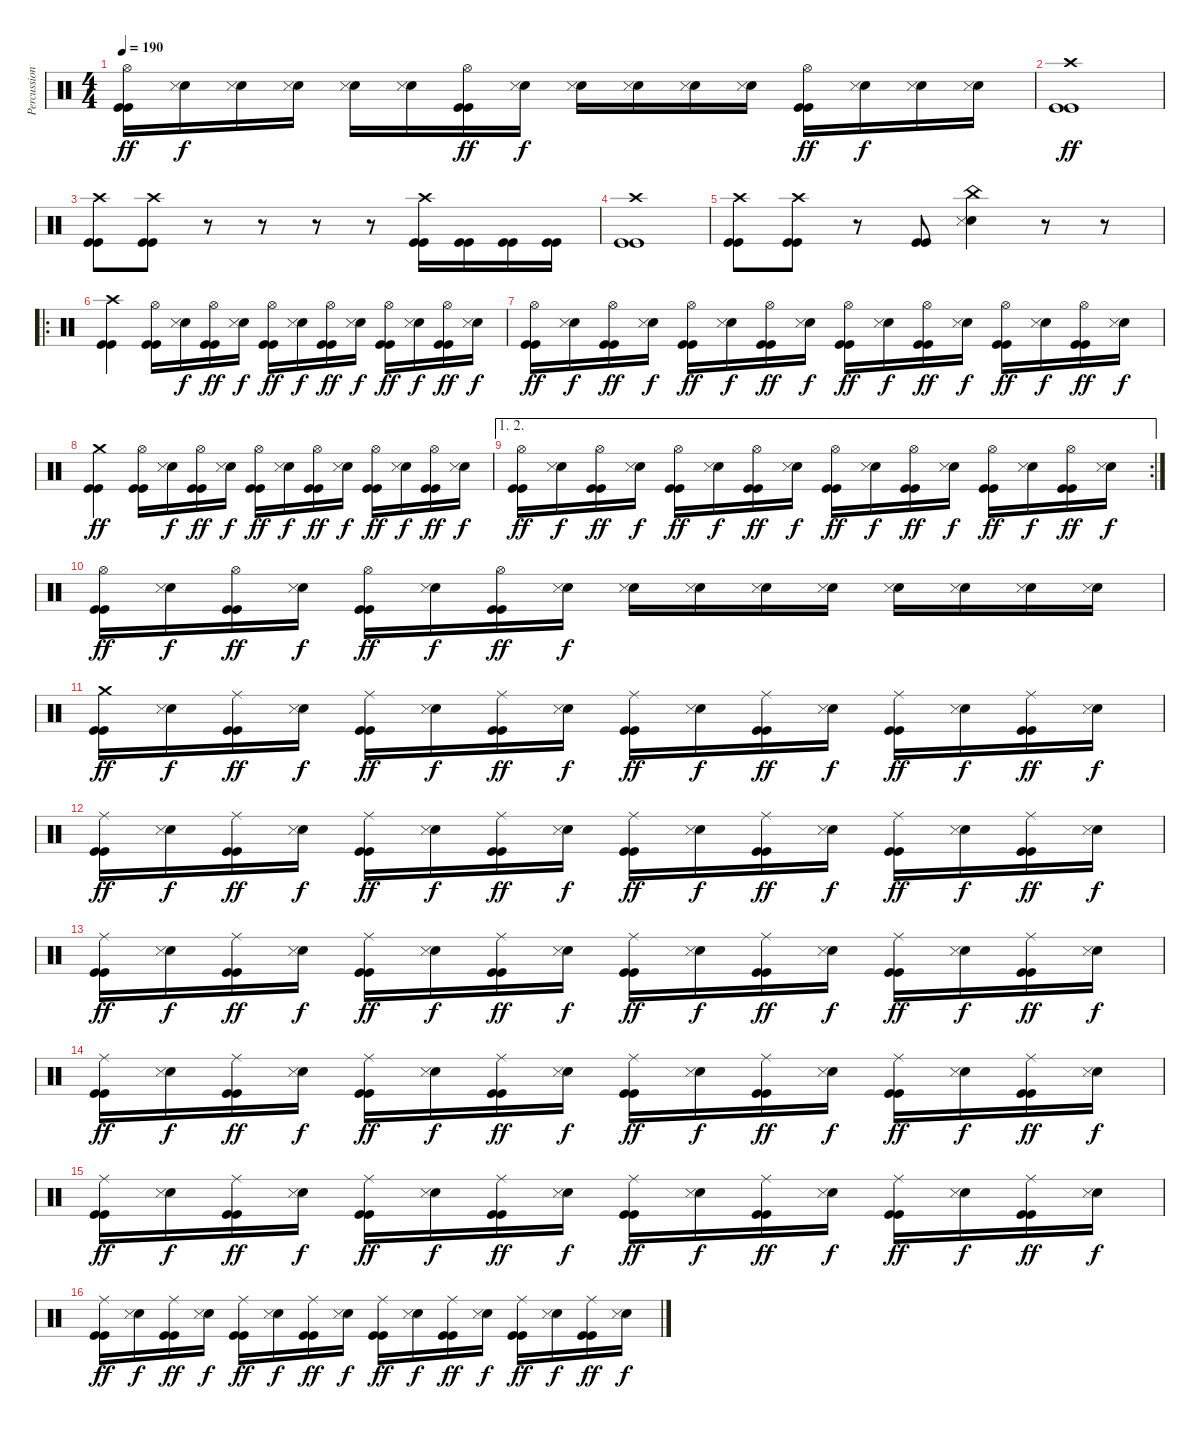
\track ("Percussion" "Percussion") {instrument percussion}
\staff {score}
\articulation defaults
\ts (4 4)
\tempo 190
\clef neutral
\ks c
("Hi-Hat (open)" "Kick (hit)" "Kick (hit)").16{dy ff} ("Electric Snare (hit)" "Snare (side stick) 3").16{dy f} ("Electric Snare (hit)" "Snare (side stick) 3").16 ("Electric Snare (hit)" "Snare (side stick) 3").16 ("Electric Snare (hit)" "Snare (side stick) 3").16 ("Electric Snare (hit)" "Snare (side stick) 3").16 ("Hi-Hat (open)" "Kick (hit)" "Kick (hit)").16{dy ff} ("Electric Snare (hit)" "Snare (side stick) 3").16{dy f} ("Electric Snare (hit)" "Snare (side stick) 3").16 ("Electric Snare (hit)" "Snare (side stick) 3").16 ("Electric Snare (hit)" "Snare (side stick) 3").16 ("Electric Snare (hit)" "Snare (side stick) 3").16 ("Hi-Hat (open)" "Kick (hit)" "Kick (hit)").16{dy ff} ("Electric Snare (hit)" "Snare (side stick) 3").16{dy f} ("Electric Snare (hit)" "Snare (side stick) 3").16 ("Electric Snare (hit)" "Snare (side stick) 3").16 |
("Crash high (hit)" "Kick (hit)" "Kick (hit)").1{dy ff} |
("Crash high (hit)" "Kick (hit)" "Kick (hit)").8 ("Crash high (hit)" "Kick (hit)" "Kick (hit)").8 r.8 r.8 r.8 r.8 ("Crash high (hit)" "Kick (hit)" "Kick (hit)").16 ("Kick (hit)" "Kick (hit)").16 ("Kick (hit)" "Kick (hit)").16 ("Kick (hit)" "Kick (hit)").16 |
("Crash high (hit)" "Kick (hit)" "Kick (hit)").1 |
("Crash high (hit)" "Kick (hit)" "Kick (hit)").8 ("Crash high (hit)" "Kick (hit)" "Kick (hit)").8 r.8 ("Kick (hit)" "Kick (hit)").8 ("China (hit)" "Electric Snare (hit)" "Snare (side stick) 3").4 r.8 r.8 |
\ro
("Crash high (hit)" "Kick (hit)" "Kick (hit)").4 ("Hi-Hat (open)" "Kick (hit)" "Kick (hit)").16 ("Electric Snare (hit)" "Snare (side stick) 3").16{dy f} ("Hi-Hat (open)" "Kick (hit)" "Kick (hit)").16{dy ff} ("Electric Snare (hit)" "Snare (side stick) 3").16{dy f} ("Hi-Hat (open)" "Kick (hit)" "Kick (hit)").16{dy ff} ("Electric Snare (hit)" "Snare (side stick) 3").16{dy f} ("Hi-Hat (open)" "Kick (hit)" "Kick (hit)").16{dy ff} ("Electric Snare (hit)" "Snare (side stick) 3").16{dy f} ("Hi-Hat (open)" "Kick (hit)" "Kick (hit)").16{dy ff} ("Electric Snare (hit)" "Snare (side stick) 3").16{dy f} ("Hi-Hat (open)" "Kick (hit)" "Kick (hit)").16{dy ff} ("Electric Snare (hit)" "Snare (side stick) 3").16{dy f} |
("Hi-Hat (open)" "Kick (hit)" "Kick (hit)").16{dy ff} ("Electric Snare (hit)" "Snare (side stick) 3").16{dy f} ("Hi-Hat (open)" "Kick (hit)" "Kick (hit)").16{dy ff} ("Electric Snare (hit)" "Snare (side stick) 3").16{dy f} ("Hi-Hat (open)" "Kick (hit)" "Kick (hit)").16{dy ff} ("Electric Snare (hit)" "Snare (side stick) 3").16{dy f} ("Hi-Hat (open)" "Kick (hit)" "Kick (hit)").16{dy ff} ("Electric Snare (hit)" "Snare (side stick) 3").16{dy f} ("Hi-Hat (open)" "Kick (hit)" "Kick (hit)").16{dy ff} ("Electric Snare (hit)" "Snare (side stick) 3").16{dy f} ("Hi-Hat (open)" "Kick (hit)" "Kick (hit)").16{dy ff} ("Electric Snare (hit)" "Snare (side stick) 3").16{dy f} ("Hi-Hat (open)" "Kick (hit)" "Kick (hit)").16{dy ff} ("Electric Snare (hit)" "Snare (side stick) 3").16{dy f} ("Hi-Hat (open)" "Kick (hit)" "Kick (hit)").16{dy ff} ("Electric Snare (hit)" "Snare (side stick) 3").16{dy f} |
("Crash medium (hit)" "Kick (hit)" "Kick (hit)").4{dy ff} ("Hi-Hat (open)" "Kick (hit)" "Kick (hit)").16 ("Electric Snare (hit)" "Snare (side stick) 3").16{dy f} ("Hi-Hat (open)" "Kick (hit)" "Kick (hit)").16{dy ff} ("Electric Snare (hit)" "Snare (side stick) 3").16{dy f} ("Hi-Hat (open)" "Kick (hit)" "Kick (hit)").16{dy ff} ("Electric Snare (hit)" "Snare (side stick) 3").16{dy f} ("Hi-Hat (open)" "Kick (hit)" "Kick (hit)").16{dy ff} ("Electric Snare (hit)" "Snare (side stick) 3").16{dy f} ("Hi-Hat (open)" "Kick (hit)" "Kick (hit)").16{dy ff} ("Electric Snare (hit)" "Snare (side stick) 3").16{dy f} ("Hi-Hat (open)" "Kick (hit)" "Kick (hit)").16{dy ff} ("Electric Snare (hit)" "Snare (side stick) 3").16{dy f} |
\ae (1 2)
\rc 2
("Hi-Hat (open)" "Kick (hit)" "Kick (hit)").16{dy ff} ("Electric Snare (hit)" "Snare (side stick) 3").16{dy f} ("Hi-Hat (open)" "Kick (hit)" "Kick (hit)").16{dy ff} ("Electric Snare (hit)" "Snare (side stick) 3").16{dy f} ("Hi-Hat (open)" "Kick (hit)" "Kick (hit)").16{dy ff} ("Electric Snare (hit)" "Snare (side stick) 3").16{dy f} ("Hi-Hat (open)" "Kick (hit)" "Kick (hit)").16{dy ff} ("Electric Snare (hit)" "Snare (side stick) 3").16{dy f} ("Hi-Hat (open)" "Kick (hit)" "Kick (hit)").16{dy ff} ("Electric Snare (hit)" "Snare (side stick) 3").16{dy f} ("Hi-Hat (open)" "Kick (hit)" "Kick (hit)").16{dy ff} ("Electric Snare (hit)" "Snare (side stick) 3").16{dy f} ("Hi-Hat (open)" "Kick (hit)" "Kick (hit)").16{dy ff} ("Electric Snare (hit)" "Snare (side stick) 3").16{dy f} ("Hi-Hat (open)" "Kick (hit)" "Kick (hit)").16{dy ff} ("Electric Snare (hit)" "Snare (side stick) 3").16{dy f} |
("Hi-Hat (open)" "Kick (hit)" "Kick (hit)").16{dy ff} ("Electric Snare (hit)" "Snare (side stick) 3").16{dy f} ("Hi-Hat (open)" "Kick (hit)" "Kick (hit)").16{dy ff} ("Electric Snare (hit)" "Snare (side stick) 3").16{dy f} ("Hi-Hat (open)" "Kick (hit)" "Kick (hit)").16{dy ff} ("Electric Snare (hit)" "Snare (side stick) 3").16{dy f} ("Hi-Hat (open)" "Kick (hit)" "Kick (hit)").16{dy ff} ("Electric Snare (hit)" "Snare (side stick) 3").16{dy f} ("Electric Snare (hit)" "Snare (side stick) 3").16 ("Electric Snare (hit)" "Snare (side stick) 3").16 ("Electric Snare (hit)" "Snare (side stick) 3").16 ("Electric Snare (hit)" "Snare (side stick) 3").16 ("Electric Snare (hit)" "Snare (side stick) 3").16 ("Electric Snare (hit)" "Snare (side stick) 3").16 ("Electric Snare (hit)" "Snare (side stick) 3").16 ("Electric Snare (hit)" "Snare (side stick) 3").16 |
("Crash medium (hit)" "Kick (hit)" "Kick (hit)").16{dy ff} ("Electric Snare (hit)" "Snare (side stick) 3").16{dy f} ("Ride (middle)" "Kick (hit)" "Kick (hit)").16{dy ff} ("Electric Snare (hit)" "Snare (side stick) 3").16{dy f} ("Ride (middle)" "Kick (hit)" "Kick (hit)").16{dy ff} ("Electric Snare (hit)" "Snare (side stick) 3").16{dy f} ("Ride (middle)" "Kick (hit)" "Kick (hit)").16{dy ff} ("Electric Snare (hit)" "Snare (side stick) 3").16{dy f} ("Ride (middle)" "Kick (hit)" "Kick (hit)").16{dy ff} ("Electric Snare (hit)" "Snare (side stick) 3").16{dy f} ("Ride (middle)" "Kick (hit)" "Kick (hit)").16{dy ff} ("Electric Snare (hit)" "Snare (side stick) 3").16{dy f} ("Ride (middle)" "Kick (hit)" "Kick (hit)").16{dy ff} ("Electric Snare (hit)" "Snare (side stick) 3").16{dy f} ("Ride (middle)" "Kick (hit)" "Kick (hit)").16{dy ff} ("Electric Snare (hit)" "Snare (side stick) 3").16{dy f} |
("Ride (middle)" "Kick (hit)" "Kick (hit)").16{dy ff} ("Electric Snare (hit)" "Snare (side stick) 3").16{dy f} ("Ride (middle)" "Kick (hit)" "Kick (hit)").16{dy ff} ("Electric Snare (hit)" "Snare (side stick) 3").16{dy f} ("Ride (middle)" "Kick (hit)" "Kick (hit)").16{dy ff} ("Electric Snare (hit)" "Snare (side stick) 3").16{dy f} ("Ride (middle)" "Kick (hit)" "Kick (hit)").16{dy ff} ("Electric Snare (hit)" "Snare (side stick) 3").16{dy f} ("Ride (middle)" "Kick (hit)" "Kick (hit)").16{dy ff} ("Electric Snare (hit)" "Snare (side stick) 3").16{dy f} ("Ride (middle)" "Kick (hit)" "Kick (hit)").16{dy ff} ("Electric Snare (hit)" "Snare (side stick) 3").16{dy f} ("Ride (middle)" "Kick (hit)" "Kick (hit)").16{dy ff} ("Electric Snare (hit)" "Snare (side stick) 3").16{dy f} ("Ride (middle)" "Kick (hit)" "Kick (hit)").16{dy ff} ("Electric Snare (hit)" "Snare (side stick) 3").16{dy f} |
("Ride (middle)" "Kick (hit)" "Kick (hit)").16{dy ff} ("Electric Snare (hit)" "Snare (side stick) 3").16{dy f} ("Ride (middle)" "Kick (hit)" "Kick (hit)").16{dy ff} ("Electric Snare (hit)" "Snare (side stick) 3").16{dy f} ("Ride (middle)" "Kick (hit)" "Kick (hit)").16{dy ff} ("Electric Snare (hit)" "Snare (side stick) 3").16{dy f} ("Ride (middle)" "Kick (hit)" "Kick (hit)").16{dy ff} ("Electric Snare (hit)" "Snare (side stick) 3").16{dy f} ("Ride (middle)" "Kick (hit)" "Kick (hit)").16{dy ff} ("Electric Snare (hit)" "Snare (side stick) 3").16{dy f} ("Ride (middle)" "Kick (hit)" "Kick (hit)").16{dy ff} ("Electric Snare (hit)" "Snare (side stick) 3").16{dy f} ("Ride (middle)" "Kick (hit)" "Kick (hit)").16{dy ff} ("Electric Snare (hit)" "Snare (side stick) 3").16{dy f} ("Ride (middle)" "Kick (hit)" "Kick (hit)").16{dy ff} ("Electric Snare (hit)" "Snare (side stick) 3").16{dy f} |
("Ride (middle)" "Kick (hit)" "Kick (hit)").16{dy ff} ("Electric Snare (hit)" "Snare (side stick) 3").16{dy f} ("Ride (middle)" "Kick (hit)" "Kick (hit)").16{dy ff} ("Electric Snare (hit)" "Snare (side stick) 3").16{dy f} ("Ride (middle)" "Kick (hit)" "Kick (hit)").16{dy ff} ("Electric Snare (hit)" "Snare (side stick) 3").16{dy f} ("Ride (middle)" "Kick (hit)" "Kick (hit)").16{dy ff} ("Electric Snare (hit)" "Snare (side stick) 3").16{dy f} ("Ride (middle)" "Kick (hit)" "Kick (hit)").16{dy ff} ("Electric Snare (hit)" "Snare (side stick) 3").16{dy f} ("Ride (middle)" "Kick (hit)" "Kick (hit)").16{dy ff} ("Electric Snare (hit)" "Snare (side stick) 3").16{dy f} ("Ride (middle)" "Kick (hit)" "Kick (hit)").16{dy ff} ("Electric Snare (hit)" "Snare (side stick) 3").16{dy f} ("Ride (middle)" "Kick (hit)" "Kick (hit)").16{dy ff} ("Electric Snare (hit)" "Snare (side stick) 3").16{dy f} |
("Ride (middle)" "Kick (hit)" "Kick (hit)").16{dy ff} ("Electric Snare (hit)" "Snare (side stick) 3").16{dy f} ("Ride (middle)" "Kick (hit)" "Kick (hit)").16{dy ff} ("Electric Snare (hit)" "Snare (side stick) 3").16{dy f} ("Ride (middle)" "Kick (hit)" "Kick (hit)").16{dy ff} ("Electric Snare (hit)" "Snare (side stick) 3").16{dy f} ("Ride (middle)" "Kick (hit)" "Kick (hit)").16{dy ff} ("Electric Snare (hit)" "Snare (side stick) 3").16{dy f} ("Ride (middle)" "Kick (hit)" "Kick (hit)").16{dy ff} ("Electric Snare (hit)" "Snare (side stick) 3").16{dy f} ("Ride (middle)" "Kick (hit)" "Kick (hit)").16{dy ff} ("Electric Snare (hit)" "Snare (side stick) 3").16{dy f} ("Ride (middle)" "Kick (hit)" "Kick (hit)").16{dy ff} ("Electric Snare (hit)" "Snare (side stick) 3").16{dy f} ("Ride (middle)" "Kick (hit)" "Kick (hit)").16{dy ff} ("Electric Snare (hit)" "Snare (side stick) 3").16{dy f} |
("Ride (middle)" "Kick (hit)" "Kick (hit)").16{dy ff} ("Electric Snare (hit)" "Snare (side stick) 3").16{dy f} ("Ride (middle)" "Kick (hit)" "Kick (hit)").16{dy ff} ("Electric Snare (hit)" "Snare (side stick) 3").16{dy f} ("Ride (middle)" "Kick (hit)" "Kick (hit)").16{dy ff} ("Electric Snare (hit)" "Snare (side stick) 3").16{dy f} ("Ride (middle)" "Kick (hit)" "Kick (hit)").16{dy ff} ("Electric Snare (hit)" "Snare (side stick) 3").16{dy f} ("Ride (middle)" "Kick (hit)" "Kick (hit)").16{dy ff} ("Electric Snare (hit)" "Snare (side stick) 3").16{dy f} ("Ride (middle)" "Kick (hit)" "Kick (hit)").16{dy ff} ("Electric Snare (hit)" "Snare (side stick) 3").16{dy f} ("Ride (middle)" "Kick (hit)" "Kick (hit)").16{dy ff} ("Electric Snare (hit)" "Snare (side stick) 3").16{dy f} ("Ride (middle)" "Kick (hit)" "Kick (hit)").16{dy ff} ("Electric Snare (hit)" "Snare (side stick) 3").16{dy f}
